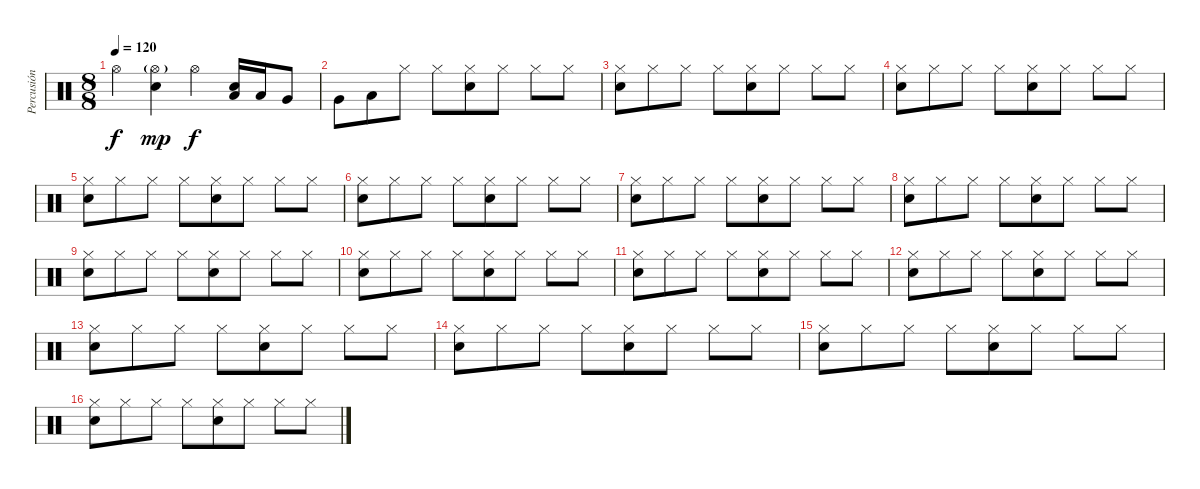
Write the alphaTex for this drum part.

\track ("Percusión" "Percusión") {instrument percussion}
\staff {score}
\articulation defaults
\ts (8 8)
\tempo 120
\clef neutral
\ks c "Hi-Hat (open)".4{dy f}
("Hi-Hat (open)"{g} "Snare (hit) 2").4{dy mp} "Hi-Hat (open)".4{dy f} ("Low Tom (hit)" "Snare (hit) 2").16 "Low Tom (hit)".16 "Very Low Tom (hit)".8 |
"Very Low Tom (hit)".8 "Low Tom (hit)".8 "Hi-Hat (closed)".8 "Hi-Hat (closed)".8 ("Hi-Hat (closed)" "Snare (hit) 2").8 "Hi-Hat (closed)".8 "Hi-Hat (closed)".8 "Hi-Hat (closed)".8 |
("Hi-Hat (closed)" "Snare (hit) 2").8 "Hi-Hat (closed)".8 "Hi-Hat (closed)".8 "Hi-Hat (closed)".8 ("Hi-Hat (closed)" "Snare (hit) 2").8 "Hi-Hat (closed)".8 "Hi-Hat (closed)".8 "Hi-Hat (closed)".8 |
("Hi-Hat (closed)" "Snare (hit) 2").8 "Hi-Hat (closed)".8 "Hi-Hat (closed)".8 "Hi-Hat (closed)".8 ("Hi-Hat (closed)" "Snare (hit) 2").8 "Hi-Hat (closed)".8 "Hi-Hat (closed)".8 "Hi-Hat (closed)".8 |
("Hi-Hat (closed)" "Snare (hit) 2").8 "Hi-Hat (closed)".8 "Hi-Hat (closed)".8 "Hi-Hat (closed)".8 ("Hi-Hat (closed)" "Snare (hit) 2").8 "Hi-Hat (closed)".8 "Hi-Hat (closed)".8 "Hi-Hat (closed)".8 |
("Hi-Hat (closed)" "Snare (hit) 2").8 "Hi-Hat (closed)".8 "Hi-Hat (closed)".8 "Hi-Hat (closed)".8 ("Hi-Hat (closed)" "Snare (hit) 2").8 "Hi-Hat (closed)".8 "Hi-Hat (closed)".8 "Hi-Hat (closed)".8 |
("Hi-Hat (closed)" "Snare (hit) 2").8 "Hi-Hat (closed)".8 "Hi-Hat (closed)".8 "Hi-Hat (closed)".8 ("Hi-Hat (closed)" "Snare (hit) 2").8 "Hi-Hat (closed)".8 "Hi-Hat (closed)".8 "Hi-Hat (closed)".8 |
("Hi-Hat (closed)" "Snare (hit) 2").8 "Hi-Hat (closed)".8 "Hi-Hat (closed)".8 "Hi-Hat (closed)".8 ("Hi-Hat (closed)" "Snare (hit) 2").8 "Hi-Hat (closed)".8 "Hi-Hat (closed)".8 "Hi-Hat (closed)".8 |
("Hi-Hat (closed)" "Snare (hit) 2").8 "Hi-Hat (closed)".8 "Hi-Hat (closed)".8 "Hi-Hat (closed)".8 ("Hi-Hat (closed)" "Snare (hit) 2").8 "Hi-Hat (closed)".8 "Hi-Hat (closed)".8 "Hi-Hat (closed)".8 |
("Hi-Hat (closed)" "Snare (hit) 2").8 "Hi-Hat (closed)".8 "Hi-Hat (closed)".8 "Hi-Hat (closed)".8 ("Hi-Hat (closed)" "Snare (hit) 2").8 "Hi-Hat (closed)".8 "Hi-Hat (closed)".8 "Hi-Hat (closed)".8 |
("Hi-Hat (closed)" "Snare (hit) 2").8 "Hi-Hat (closed)".8 "Hi-Hat (closed)".8 "Hi-Hat (closed)".8 ("Hi-Hat (closed)" "Snare (hit) 2").8 "Hi-Hat (closed)".8 "Hi-Hat (closed)".8 "Hi-Hat (closed)".8 |
("Hi-Hat (closed)" "Snare (hit) 2").8 "Hi-Hat (closed)".8 "Hi-Hat (closed)".8 "Hi-Hat (closed)".8 ("Hi-Hat (closed)" "Snare (hit) 2").8 "Hi-Hat (closed)".8 "Hi-Hat (closed)".8 "Hi-Hat (closed)".8 |
("Hi-Hat (closed)" "Snare (hit) 2").8 "Hi-Hat (closed)".8 "Hi-Hat (closed)".8 "Hi-Hat (closed)".8 ("Hi-Hat (closed)" "Snare (hit) 2").8 "Hi-Hat (closed)".8 "Hi-Hat (closed)".8 "Hi-Hat (closed)".8 |
("Hi-Hat (closed)" "Snare (hit) 2").8 "Hi-Hat (closed)".8 "Hi-Hat (closed)".8 "Hi-Hat (closed)".8 ("Hi-Hat (closed)" "Snare (hit) 2").8 "Hi-Hat (closed)".8 "Hi-Hat (closed)".8 "Hi-Hat (closed)".8 |
("Hi-Hat (closed)" "Snare (hit) 2").8 "Hi-Hat (closed)".8 "Hi-Hat (closed)".8 "Hi-Hat (closed)".8 ("Hi-Hat (closed)" "Snare (hit) 2").8 "Hi-Hat (closed)".8 "Hi-Hat (closed)".8 "Hi-Hat (closed)".8 |
("Hi-Hat (closed)" "Snare (hit) 2").8 "Hi-Hat (closed)".8 "Hi-Hat (closed)".8 "Hi-Hat (closed)".8 ("Hi-Hat (closed)" "Snare (hit) 2").8 "Hi-Hat (closed)".8 "Hi-Hat (closed)".8 "Hi-Hat (closed)".8
